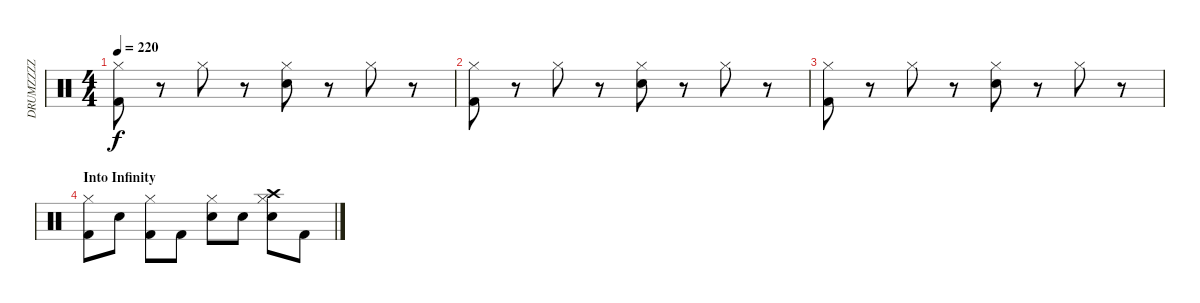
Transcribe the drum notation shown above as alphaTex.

\track ("DRUMZZZZ" "DRUMZZZZ") {instrument percussion}
\staff {score}
\articulation defaults
\ts (4 4)
\tempo 220
\clef neutral
\ks c
("Hi-Hat (closed)" "Kick (hit) 2").8{dy f} r.8 "Hi-Hat (closed)".8 r.8 ("Hi-Hat (closed)" "Snare (hit) 2").8 r.8 "Hi-Hat (closed)".8 r.8 |
("Hi-Hat (closed)" "Kick (hit) 2").8 r.8 "Hi-Hat (closed)".8 r.8 ("Hi-Hat (closed)" "Snare (hit) 2").8 r.8 "Hi-Hat (closed)".8 r.8 |
("Hi-Hat (closed)" "Kick (hit) 2").8 r.8 "Hi-Hat (closed)".8 r.8 ("Hi-Hat (closed)" "Snare (hit) 2").8 r.8 "Hi-Hat (closed)".8 r.8 |
\section ("" "Into Infinity")
("Hi-Hat (closed)" "Kick (hit) 2").8 "Snare (hit) 2".8 ("Hi-Hat (closed)" "Kick (hit) 2").8 "Kick (hit) 2".8 ("Hi-Hat (closed)" "Electric Snare (hit)").8 "Snare (hit) 2".8 ("Crash high (hit)" "Hi-Hat (closed)" "Snare (hit) 2").8 "Kick (hit) 2".8
